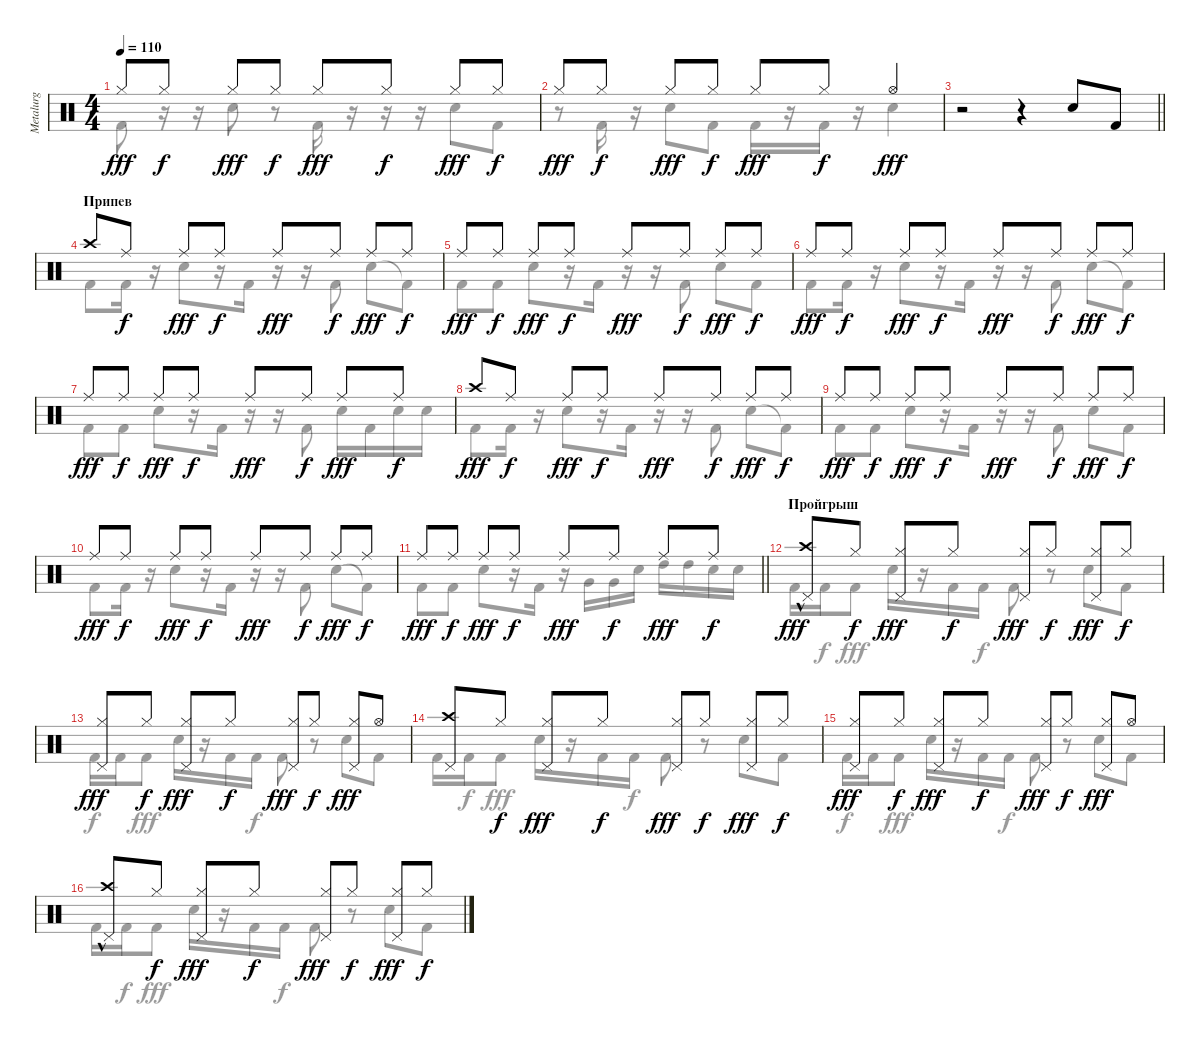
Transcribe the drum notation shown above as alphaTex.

\track ("Metalurg" "Metalurg") {instrument percussion}
\staff {score}
\articulation defaults
\voice
\ts (4 4)
\tempo 110
\clef neutral
\ks c "Hi-Hat (closed)".8{dy fff} "Hi-Hat (closed)".8{dy f} "Hi-Hat (closed)".8{dy fff} "Hi-Hat (closed)".8{dy f} "Hi-Hat (closed)".8{dy fff} "Hi-Hat (closed)".8{dy f} "Hi-Hat (closed)".8{dy fff} "Hi-Hat (closed)".8{dy f}
|
"Hi-Hat (closed)".8{dy fff} "Hi-Hat (closed)".8{dy f} "Hi-Hat (closed)".8{dy fff} "Hi-Hat (closed)".8{dy f} "Hi-Hat (closed)".8{dy fff} "Hi-Hat (closed)".8{dy f} "Hi-Hat (open)".4{dy fff} |
\barLineRight lightlight
r.2 r.4 "Snare (hit) 2".8 "Kick (hit) 2".8 |
\section ("" "Припев")
"Crash high (hit)".8 "Ride (middle)".8{dy f} "Ride (middle)".8{dy fff} "Ride (middle)".8{dy f} "Ride (middle)".8{dy fff} "Ride (middle)".8{dy f} "Ride (middle)".8{dy fff} "Ride (middle)".8{dy f} |
"Ride (middle)".8{dy fff} "Ride (middle)".8{dy f} "Ride (middle)".8{dy fff} "Ride (middle)".8{dy f} "Ride (middle)".8{dy fff} "Ride (middle)".8{dy f} "Ride (middle)".8{dy fff} "Ride (middle)".8{dy f} |
"Ride (middle)".8{dy fff} "Ride (middle)".8{dy f} "Ride (middle)".8{dy fff} "Ride (middle)".8{dy f} "Ride (middle)".8{dy fff} "Ride (middle)".8{dy f} "Ride (middle)".8{dy fff} "Ride (middle)".8{dy f} |
"Ride (middle)".8{dy fff} "Ride (middle)".8{dy f} "Ride (middle)".8{dy fff} "Ride (middle)".8{dy f} "Ride (middle)".8{dy fff} "Ride (middle)".8{dy f} "Ride (middle)".8{dy fff} "Ride (middle)".8{dy f} |
"Crash high (hit)".8{dy fff} "Ride (middle)".8{dy f} "Ride (middle)".8{dy fff} "Ride (middle)".8{dy f} "Ride (middle)".8{dy fff} "Ride (middle)".8{dy f} "Ride (middle)".8{dy fff} "Ride (middle)".8{dy f} |
"Ride (middle)".8{dy fff} "Ride (middle)".8{dy f} "Ride (middle)".8{dy fff} "Ride (middle)".8{dy f} "Ride (middle)".8{dy fff} "Ride (middle)".8{dy f} "Ride (middle)".8{dy fff} "Ride (middle)".8{dy f} |
"Ride (middle)".8{dy fff} "Ride (middle)".8{dy f} "Ride (middle)".8{dy fff} "Ride (middle)".8{dy f} "Ride (middle)".8{dy fff} "Ride (middle)".8{dy f} "Ride (middle)".8{dy fff} "Ride (middle)".8{dy f} |
\barLineRight lightlight "Ride (middle)".8{dy fff} "Ride (middle)".8{dy f} "Ride (middle)".8{dy fff} "Ride (middle)".8{dy f} "Ride (middle)".8{dy fff} "Ride (middle)".8{dy f} "Ride (middle)".8{dy fff} "Ride (middle)".8{dy f}
|
\section ("" "Пройгрыш")
("Crash high (hit)"{hac} "Pedal Hi-Hat (hit)").8{dy fff} "Hi-Hat (closed)".8{dy f} ("Hi-Hat (closed)" "Pedal Hi-Hat (hit)").8{dy fff} "Hi-Hat (closed)".8{dy f} ("Hi-Hat (closed)" "Pedal Hi-Hat (hit)").8{dy fff} "Hi-Hat (closed)".8{dy f} ("Hi-Hat (closed)" "Pedal Hi-Hat (hit)").8{dy fff} "Hi-Hat (closed)".8{dy f} |
("Hi-Hat (closed)" "Pedal Hi-Hat (hit)").8{dy fff} "Hi-Hat (closed)".8{dy f} ("Hi-Hat (closed)" "Pedal Hi-Hat (hit)").8{dy fff} "Hi-Hat (closed)".8{dy f} ("Hi-Hat (closed)" "Pedal Hi-Hat (hit)").8{dy fff} "Hi-Hat (closed)".8{dy f} ("Hi-Hat (closed)" "Pedal Hi-Hat (hit)").8{dy fff} "Hi-Hat (open)".8 |
("Crash high (hit)" "Pedal Hi-Hat (hit)").8 "Hi-Hat (closed)".8{dy f} ("Hi-Hat (closed)" "Pedal Hi-Hat (hit)").8{dy fff} "Hi-Hat (closed)".8{dy f} ("Hi-Hat (closed)" "Pedal Hi-Hat (hit)").8{dy fff} "Hi-Hat (closed)".8{dy f} ("Hi-Hat (closed)" "Pedal Hi-Hat (hit)").8{dy fff} "Hi-Hat (closed)".8{dy f} |
("Hi-Hat (closed)" "Pedal Hi-Hat (hit)").8{dy fff} "Hi-Hat (closed)".8{dy f} ("Hi-Hat (closed)" "Pedal Hi-Hat (hit)").8{dy fff} "Hi-Hat (closed)".8{dy f} ("Hi-Hat (closed)" "Pedal Hi-Hat (hit)").8{dy fff} "Hi-Hat (closed)".8{dy f} ("Hi-Hat (closed)" "Pedal Hi-Hat (hit)").8{dy fff} "Hi-Hat (open)".8 |
("Crash high (hit)"{hac} "Pedal Hi-Hat (hit)").8 "Hi-Hat (closed)".8{dy f} ("Hi-Hat (closed)" "Pedal Hi-Hat (hit)").8{dy fff} "Hi-Hat (closed)".8{dy f} ("Hi-Hat (closed)" "Pedal Hi-Hat (hit)").8{dy fff} "Hi-Hat (closed)".8{dy f} ("Hi-Hat (closed)" "Pedal Hi-Hat (hit)").8{dy fff} "Hi-Hat (closed)".8{dy f}
\voice
\clef neutral
\ottava regular
\simile none
\ks c "Kick (hit) 2".8{dy fff}
r.16 r.16 "Snare (hit) 2".8 r.8 "Kick (hit) 2".16 r.16 r.16 r.16 "Snare (hit) 2".8 "Kick (hit) 2".8 |
r.8 "Kick (hit) 2".16 r.16 "Snare (hit) 2".8 "Kick (hit) 2".8 "Kick (hit) 2".16 r.16 "Kick (hit) 2".16 r.16 "Snare (hit) 2".4 |
\barLineRight lightlight
|
"Kick (hit) 2".8 "Kick (hit) 2".16 r.16 "Snare (hit) 2".8 r.16 "Kick (hit) 2".16 r.16 r.16 "Kick (hit) 2".8 "Snare (hit) 2".8 "Kick (hit) 2"{t}.8 |
"Kick (hit) 2".8 "Kick (hit) 2".8 "Snare (hit) 2".8 r.16 "Kick (hit) 2".16 r.16 r.16 "Kick (hit) 2".8 "Snare (hit) 2".8 "Kick (hit) 2".8 |
"Kick (hit) 2".8 "Kick (hit) 2".16 r.16 "Snare (hit) 2".8 r.16 "Kick (hit) 2".16 r.16 r.16 "Kick (hit) 2".8 "Snare (hit) 2".8 "Kick (hit) 2"{t}.8 |
"Kick (hit) 2".8 "Kick (hit) 2".8 "Snare (hit) 2".8 r.16 "Kick (hit) 2".16 r.16 r.16 "Kick (hit) 2".8 "Snare (hit) 2".16 "Kick (hit) 2".16 "Snare (hit) 2".16 "Snare (hit) 2".16 |
"Kick (hit) 2".8 "Kick (hit) 2".16 r.16 "Snare (hit) 2".8 r.16 "Kick (hit) 2".16 r.16 r.16 "Kick (hit) 2".8 "Snare (hit) 2".8 "Kick (hit) 2"{t}.8 |
"Kick (hit) 2".8 "Kick (hit) 2".8 "Snare (hit) 2".8 r.16 "Kick (hit) 2".16 r.16 r.16 "Kick (hit) 2".8 "Snare (hit) 2".8 "Kick (hit) 2".8 |
"Kick (hit) 2".8 "Kick (hit) 2".16 r.16 "Snare (hit) 2".8 r.16 "Kick (hit) 2".16 r.16 r.16 "Kick (hit) 2".8 "Snare (hit) 2".8 "Kick (hit) 2"{t}.8 |
\barLineRight lightlight "Kick (hit) 2".8 "Kick (hit) 2".8 "Snare (hit) 2".8
r.16 "Kick (hit) 2".16 r.16 "Very Low Tom (hit)".16 "Very Low Tom (hit)".16 "Snare (hit) 2".16 "High Tom (hit)".16 "High Tom (hit)".16 "Snare (hit) 2".16 "Snare (hit) 2".16 |
"Kick (hit) 2".16 "Kick (hit) 2".16{dy f} "Kick (hit) 2".8{dy fff} "Snare (hit) 2".16 r.16 "Kick (hit) 2".16 "Kick (hit) 2".16{dy f} "Kick (hit) 2".8{dy fff} r.8 "Snare (hit) 2".8 "Kick (hit) 2".8 |
"Kick (hit) 2".16{dy f} "Kick (hit) 2".16 "Kick (hit) 2".8{dy fff} "Snare (hit) 2".16 r.16 "Kick (hit) 2".16 "Kick (hit) 2".16{dy f} "Kick (hit) 2".8{dy fff} r.8 "Snare (hit) 2".8 "Kick (hit) 2".8 |
"Kick (hit) 2".16 "Kick (hit) 2".16{dy f} "Kick (hit) 2".8{dy fff} "Snare (hit) 2".16 r.16 "Kick (hit) 2".16 "Kick (hit) 2".16{dy f} "Kick (hit) 2".8{dy fff} r.8 "Snare (hit) 2".8 "Kick (hit) 2".8 |
"Kick (hit) 2".16{dy f} "Kick (hit) 2".16 "Kick (hit) 2".8{dy fff} "Snare (hit) 2".16 r.16 "Kick (hit) 2".16 "Kick (hit) 2".16{dy f} "Kick (hit) 2".8{dy fff} r.8 "Snare (hit) 2".8 "Kick (hit) 2".8 |
"Kick (hit) 2".16 "Kick (hit) 2".16{dy f} "Kick (hit) 2".8{dy fff} "Snare (hit) 2".16 r.16 "Kick (hit) 2".16 "Kick (hit) 2".16{dy f} "Kick (hit) 2".8{dy fff} r.8 "Snare (hit) 2".8 "Kick (hit) 2".8
